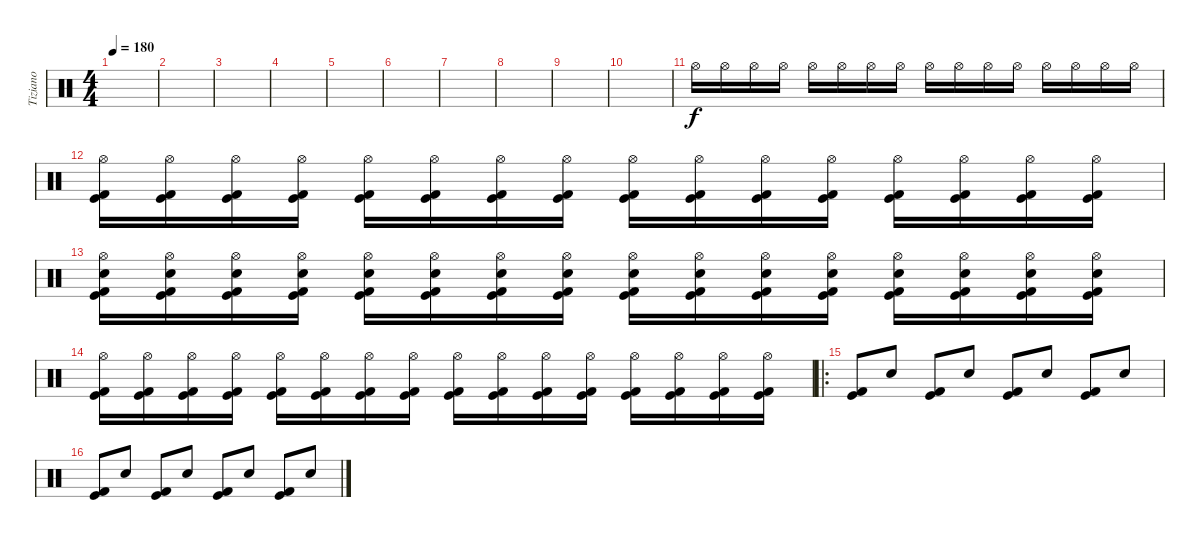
\track ("Tiziano" "Tiziano") {instrument percussion}
\staff {score}
\articulation defaults
\ts (4 4)
\tempo 180
\clef neutral
\ks c
|
|
|
|
|
|
|
|
|
|
"Hi-Hat (open)".16 "Hi-Hat (open)".16 "Hi-Hat (open)".16 "Hi-Hat (open)".16 "Hi-Hat (open)".16 "Hi-Hat (open)".16 "Hi-Hat (open)".16 "Hi-Hat (open)".16 "Hi-Hat (open)".16 "Hi-Hat (open)".16 "Hi-Hat (open)".16 "Hi-Hat (open)".16 "Hi-Hat (open)".16 "Hi-Hat (open)".16 "Hi-Hat (open)".16 "Hi-Hat (open)".16 |
("Hi-Hat (open)" "Kick (hit)" "Kick (hit) 2").16 ("Hi-Hat (open)" "Kick (hit)" "Kick (hit) 2").16 ("Hi-Hat (open)" "Kick (hit)" "Kick (hit) 2").16 ("Hi-Hat (open)" "Kick (hit)" "Kick (hit) 2").16 ("Hi-Hat (open)" "Kick (hit)" "Kick (hit) 2").16 ("Hi-Hat (open)" "Kick (hit)" "Kick (hit) 2").16 ("Hi-Hat (open)" "Kick (hit)" "Kick (hit) 2").16 ("Hi-Hat (open)" "Kick (hit)" "Kick (hit) 2").16 ("Hi-Hat (open)" "Kick (hit)" "Kick (hit) 2").16 ("Hi-Hat (open)" "Kick (hit)" "Kick (hit) 2").16 ("Hi-Hat (open)" "Kick (hit)" "Kick (hit) 2").16 ("Hi-Hat (open)" "Kick (hit)" "Kick (hit) 2").16 ("Hi-Hat (open)" "Kick (hit)" "Kick (hit) 2").16 ("Hi-Hat (open)" "Kick (hit)" "Kick (hit) 2").16 ("Hi-Hat (open)" "Kick (hit)" "Kick (hit) 2").16 ("Hi-Hat (open)" "Kick (hit)" "Kick (hit) 2").16 |
("Hi-Hat (open)" "Kick (hit)" "Kick (hit) 2" "Snare (hit) 2").16 ("Hi-Hat (open)" "Kick (hit)" "Kick (hit) 2" "Snare (hit) 2").16 ("Hi-Hat (open)" "Kick (hit)" "Kick (hit) 2" "Snare (hit) 2").16 ("Hi-Hat (open)" "Kick (hit)" "Kick (hit) 2" "Snare (hit) 2").16 ("Hi-Hat (open)" "Kick (hit)" "Kick (hit) 2" "Snare (hit) 2").16 ("Hi-Hat (open)" "Kick (hit)" "Kick (hit) 2" "Snare (hit) 2").16 ("Hi-Hat (open)" "Kick (hit)" "Kick (hit) 2" "Snare (hit) 2").16 ("Hi-Hat (open)" "Kick (hit)" "Kick (hit) 2" "Snare (hit) 2").16 ("Hi-Hat (open)" "Kick (hit)" "Kick (hit) 2" "Snare (hit) 2").16 ("Hi-Hat (open)" "Kick (hit)" "Kick (hit) 2" "Snare (hit) 2").16 ("Hi-Hat (open)" "Kick (hit)" "Kick (hit) 2" "Snare (hit) 2").16 ("Hi-Hat (open)" "Kick (hit)" "Kick (hit) 2" "Snare (hit) 2").16 ("Hi-Hat (open)" "Kick (hit)" "Kick (hit) 2" "Snare (hit) 2").16 ("Hi-Hat (open)" "Kick (hit)" "Kick (hit) 2" "Snare (hit) 2").16 ("Hi-Hat (open)" "Kick (hit)" "Kick (hit) 2" "Snare (hit) 2").16 ("Hi-Hat (open)" "Kick (hit)" "Kick (hit) 2" "Snare (hit) 2").16 |
("Hi-Hat (open)" "Kick (hit)" "Kick (hit) 2").16 ("Hi-Hat (open)" "Kick (hit)" "Kick (hit) 2").16 ("Hi-Hat (open)" "Kick (hit)" "Kick (hit) 2").16 ("Hi-Hat (open)" "Kick (hit)" "Kick (hit) 2").16 ("Hi-Hat (open)" "Kick (hit)" "Kick (hit) 2").16 ("Hi-Hat (open)" "Kick (hit)" "Kick (hit) 2").16 ("Hi-Hat (open)" "Kick (hit)" "Kick (hit) 2").16 ("Hi-Hat (open)" "Kick (hit)" "Kick (hit) 2").16 ("Hi-Hat (open)" "Kick (hit)" "Kick (hit) 2").16 ("Hi-Hat (open)" "Kick (hit)" "Kick (hit) 2").16 ("Hi-Hat (open)" "Kick (hit)" "Kick (hit) 2").16 ("Hi-Hat (open)" "Kick (hit)" "Kick (hit) 2").16 ("Hi-Hat (open)" "Kick (hit)" "Kick (hit) 2").16 ("Hi-Hat (open)" "Kick (hit)" "Kick (hit) 2").16 ("Hi-Hat (open)" "Kick (hit)" "Kick (hit) 2").16 ("Hi-Hat (open)" "Kick (hit)" "Kick (hit) 2").16 |
\ro
("Kick (hit)" "Kick (hit) 2").8 "Snare (hit) 2".8 ("Kick (hit)" "Kick (hit) 2").8 "Snare (hit) 2".8 ("Kick (hit)" "Kick (hit) 2").8 "Snare (hit) 2".8 ("Kick (hit)" "Kick (hit) 2").8 "Snare (hit) 2".8 |
("Kick (hit)" "Kick (hit) 2").8 "Snare (hit) 2".8 ("Kick (hit)" "Kick (hit) 2").8 "Snare (hit) 2".8 ("Kick (hit)" "Kick (hit) 2").8 "Snare (hit) 2".8 ("Kick (hit)" "Kick (hit) 2").8 "Snare (hit) 2".8
